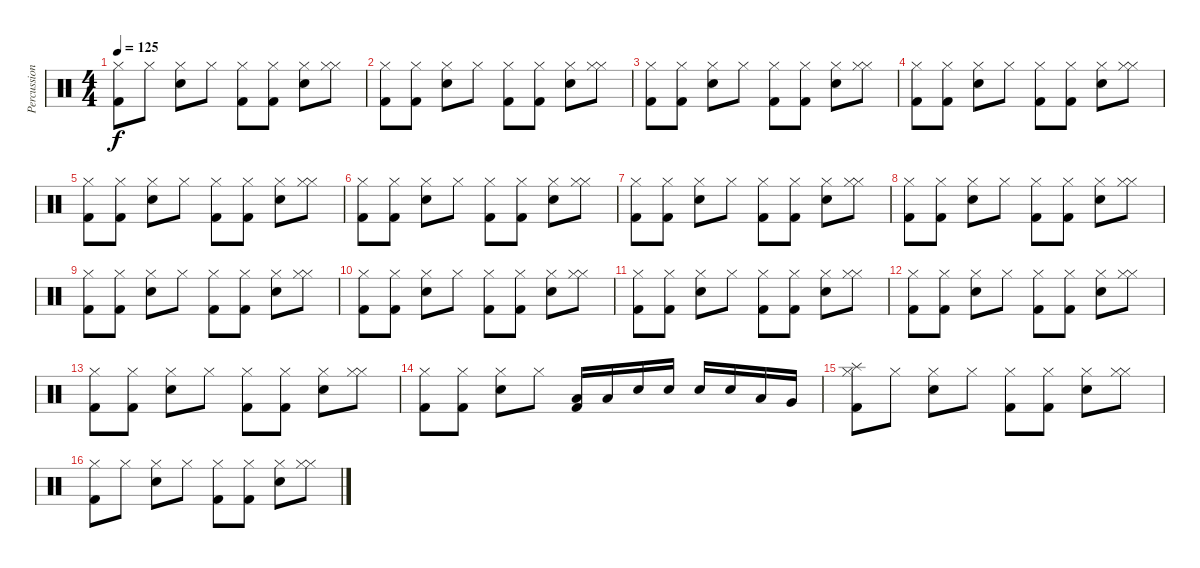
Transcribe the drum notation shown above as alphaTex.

\track ("Percussion" "Percussion") {instrument percussion}
\staff {score}
\articulation defaults
\ts (4 4)
\tempo 125
\clef neutral
\ks c
("Hi-Hat (closed)" "Kick (hit) 2").8{dy f} "Hi-Hat (closed)".8 ("Hi-Hat (closed)" "Electric Snare (hit)").8 "Hi-Hat (closed)".8 ("Hi-Hat (closed)" "Kick (hit) 2").8 ("Hi-Hat (closed)" "Kick (hit) 2").8 ("Hi-Hat (closed)" "Electric Snare (hit)").8 ("Hi-Hat (closed)" "Hi-Hat (closed)").8 |
("Hi-Hat (closed)" "Kick (hit) 2").8 ("Hi-Hat (closed)" "Kick (hit) 2").8 ("Hi-Hat (closed)" "Electric Snare (hit)").8 "Hi-Hat (closed)".8 ("Hi-Hat (closed)" "Kick (hit) 2").8 ("Hi-Hat (closed)" "Kick (hit) 2").8 ("Hi-Hat (closed)" "Electric Snare (hit)").8 ("Hi-Hat (closed)" "Hi-Hat (closed)").8 |
("Hi-Hat (closed)" "Kick (hit) 2").8 ("Hi-Hat (closed)" "Kick (hit) 2").8 ("Hi-Hat (closed)" "Electric Snare (hit)").8 "Hi-Hat (closed)".8 ("Hi-Hat (closed)" "Kick (hit) 2").8 ("Hi-Hat (closed)" "Kick (hit) 2").8 ("Hi-Hat (closed)" "Electric Snare (hit)").8 ("Hi-Hat (closed)" "Hi-Hat (closed)").8 |
("Hi-Hat (closed)" "Kick (hit) 2").8 ("Hi-Hat (closed)" "Kick (hit) 2").8 ("Hi-Hat (closed)" "Electric Snare (hit)").8 "Hi-Hat (closed)".8 ("Hi-Hat (closed)" "Kick (hit) 2").8 ("Hi-Hat (closed)" "Kick (hit) 2").8 ("Hi-Hat (closed)" "Electric Snare (hit)").8 ("Hi-Hat (closed)" "Hi-Hat (closed)").8 |
("Hi-Hat (closed)" "Kick (hit) 2").8 ("Hi-Hat (closed)" "Kick (hit) 2").8 ("Hi-Hat (closed)" "Electric Snare (hit)").8 "Hi-Hat (closed)".8 ("Hi-Hat (closed)" "Kick (hit) 2").8 ("Hi-Hat (closed)" "Kick (hit) 2").8 ("Hi-Hat (closed)" "Electric Snare (hit)").8 ("Hi-Hat (closed)" "Hi-Hat (closed)").8 |
("Hi-Hat (closed)" "Kick (hit) 2").8 ("Hi-Hat (closed)" "Kick (hit) 2").8 ("Hi-Hat (closed)" "Electric Snare (hit)").8 "Hi-Hat (closed)".8 ("Hi-Hat (closed)" "Kick (hit) 2").8 ("Hi-Hat (closed)" "Kick (hit) 2").8 ("Hi-Hat (closed)" "Electric Snare (hit)").8 ("Hi-Hat (closed)" "Hi-Hat (closed)").8 |
("Hi-Hat (closed)" "Kick (hit) 2").8 ("Hi-Hat (closed)" "Kick (hit) 2").8 ("Hi-Hat (closed)" "Electric Snare (hit)").8 "Hi-Hat (closed)".8 ("Hi-Hat (closed)" "Kick (hit) 2").8 ("Hi-Hat (closed)" "Kick (hit) 2").8 ("Hi-Hat (closed)" "Electric Snare (hit)").8 ("Hi-Hat (closed)" "Hi-Hat (closed)").8 |
("Hi-Hat (closed)" "Kick (hit) 2").8 ("Hi-Hat (closed)" "Kick (hit) 2").8 ("Hi-Hat (closed)" "Electric Snare (hit)").8 "Hi-Hat (closed)".8 ("Hi-Hat (closed)" "Kick (hit) 2").8 ("Hi-Hat (closed)" "Kick (hit) 2").8 ("Hi-Hat (closed)" "Electric Snare (hit)").8 ("Hi-Hat (closed)" "Hi-Hat (closed)").8 |
("Hi-Hat (closed)" "Kick (hit) 2").8 ("Hi-Hat (closed)" "Kick (hit) 2").8 ("Hi-Hat (closed)" "Electric Snare (hit)").8 "Hi-Hat (closed)".8 ("Hi-Hat (closed)" "Kick (hit) 2").8 ("Hi-Hat (closed)" "Kick (hit) 2").8 ("Hi-Hat (closed)" "Electric Snare (hit)").8 ("Hi-Hat (closed)" "Hi-Hat (closed)").8 |
("Hi-Hat (closed)" "Kick (hit) 2").8 ("Hi-Hat (closed)" "Kick (hit) 2").8 ("Hi-Hat (closed)" "Electric Snare (hit)").8 "Hi-Hat (closed)".8 ("Hi-Hat (closed)" "Kick (hit) 2").8 ("Hi-Hat (closed)" "Kick (hit) 2").8 ("Hi-Hat (closed)" "Electric Snare (hit)").8 ("Hi-Hat (closed)" "Hi-Hat (closed)").8 |
("Hi-Hat (closed)" "Kick (hit) 2").8 ("Hi-Hat (closed)" "Kick (hit) 2").8 ("Hi-Hat (closed)" "Electric Snare (hit)").8 "Hi-Hat (closed)".8 ("Hi-Hat (closed)" "Kick (hit) 2").8 ("Hi-Hat (closed)" "Kick (hit) 2").8 ("Hi-Hat (closed)" "Electric Snare (hit)").8 ("Hi-Hat (closed)" "Hi-Hat (closed)").8 |
("Hi-Hat (closed)" "Kick (hit) 2").8 ("Hi-Hat (closed)" "Kick (hit) 2").8 ("Hi-Hat (closed)" "Electric Snare (hit)").8 "Hi-Hat (closed)".8 ("Hi-Hat (closed)" "Kick (hit) 2").8 ("Hi-Hat (closed)" "Kick (hit) 2").8 ("Hi-Hat (closed)" "Electric Snare (hit)").8 ("Hi-Hat (closed)" "Hi-Hat (closed)").8 |
("Hi-Hat (closed)" "Kick (hit) 2").8 ("Hi-Hat (closed)" "Kick (hit) 2").8 ("Hi-Hat (closed)" "Electric Snare (hit)").8 "Hi-Hat (closed)".8 ("Hi-Hat (closed)" "Kick (hit) 2").8 ("Hi-Hat (closed)" "Kick (hit) 2").8 ("Hi-Hat (closed)" "Electric Snare (hit)").8 ("Hi-Hat (closed)" "Hi-Hat (closed)").8 |
("Hi-Hat (closed)" "Kick (hit) 2").8 ("Hi-Hat (closed)" "Kick (hit) 2").8 ("Hi-Hat (closed)" "Electric Snare (hit)").8 "Hi-Hat (closed)".8 ("Low Tom (hit)" "Kick (hit) 2").16 "Low Tom (hit)".16 "Electric Snare (hit)".16 "Electric Snare (hit)".16 "Electric Snare (hit)".16 "Electric Snare (hit)".16 "Low Tom (hit)".16 "Very Low Tom (hit)".16 |
("Splash (hit)" "Hi-Hat (closed)" "Kick (hit) 2").8 "Hi-Hat (closed)".8 ("Hi-Hat (closed)" "Electric Snare (hit)").8 "Hi-Hat (closed)".8 ("Hi-Hat (closed)" "Kick (hit) 2").8 ("Hi-Hat (closed)" "Kick (hit) 2").8 ("Hi-Hat (closed)" "Electric Snare (hit)").8 ("Hi-Hat (closed)" "Hi-Hat (closed)").8 |
("Hi-Hat (closed)" "Kick (hit) 2").8 "Hi-Hat (closed)".8 ("Hi-Hat (closed)" "Electric Snare (hit)").8 "Hi-Hat (closed)".8 ("Hi-Hat (closed)" "Kick (hit) 2").8 ("Hi-Hat (closed)" "Kick (hit) 2").8 ("Hi-Hat (closed)" "Electric Snare (hit)").8 ("Hi-Hat (closed)" "Hi-Hat (closed)").8
